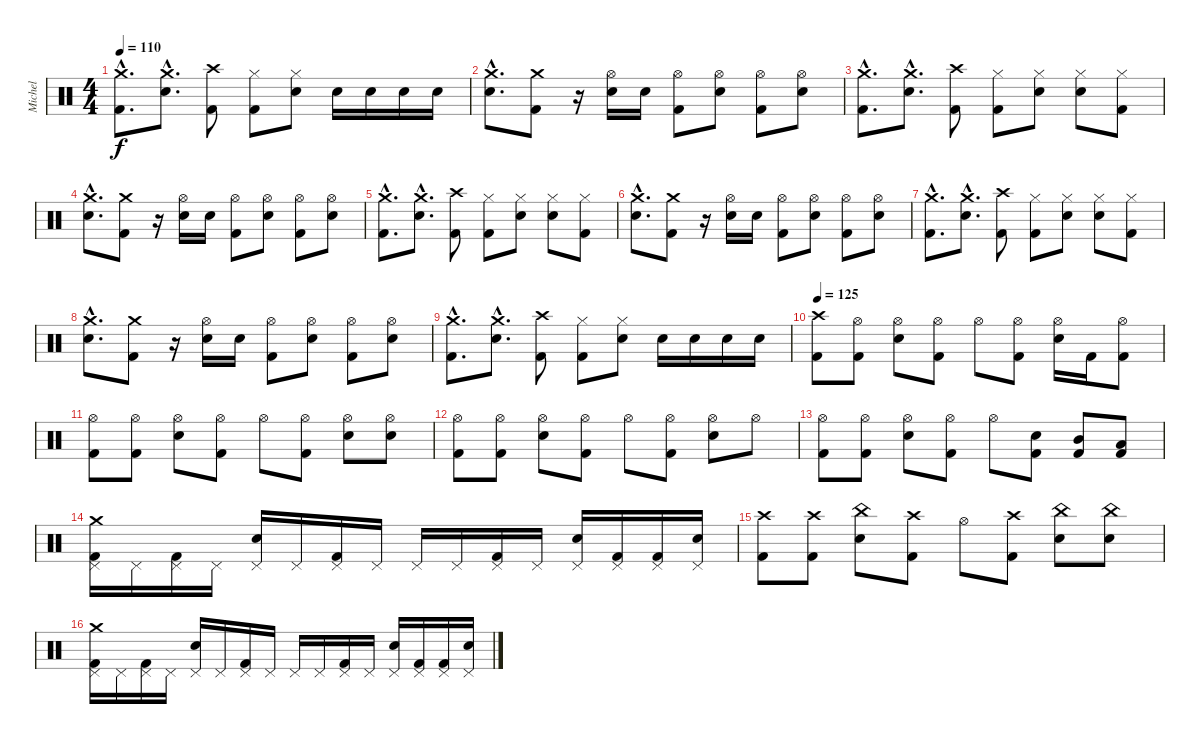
\track ("Michel" "Michel") {instrument percussion}
\staff {score}
\articulation defaults
\ts (4 4)
\tempo 110
\clef neutral
\ks c
("Crash medium (hit)"{hac} "Kick (hit) 2"{hac}).8{d dy f} ("Crash medium (hit)"{hac} "Snare (hit) 2"{hac}).8{d} ("Crash high (hit)" "Kick (hit) 2").8 ("Kick (hit) 2" "Hi-Hat (closed)").8 ("Snare (hit) 2" "Hi-Hat (closed)").8 "Snare (hit) 2".16 "Snare (hit) 2".16 "Snare (hit) 2".16 "Snare (hit) 2".16 |
("Crash medium (hit)"{hac} "Snare (hit) 2"{hac}).8{d} ("Crash medium (hit)" "Kick (hit) 2").8 r.16 ("Snare (hit) 2" "Hi-Hat (open)").16 "Snare (hit) 2".16 ("Kick (hit) 2" "Hi-Hat (open)").8 ("Snare (hit) 2" "Hi-Hat (open)").8 ("Kick (hit) 2" "Hi-Hat (open)").8 ("Snare (hit) 2" "Hi-Hat (open)").8 |
("Crash medium (hit)"{hac} "Kick (hit) 2"{hac}).8{d} ("Crash medium (hit)"{hac} "Snare (hit) 2"{hac}).8{d} ("Crash high (hit)" "Kick (hit) 2").8 ("Kick (hit) 2" "Hi-Hat (closed)").8 ("Snare (hit) 2" "Hi-Hat (closed)").8 ("Snare (hit) 2" "Hi-Hat (closed)").8 ("Kick (hit) 2" "Hi-Hat (closed)").8 |
("Crash medium (hit)"{hac} "Snare (hit) 2"{hac}).8{d} ("Crash medium (hit)" "Kick (hit) 2").8 r.16 ("Snare (hit) 2" "Hi-Hat (open)").16 "Snare (hit) 2".16 ("Kick (hit) 2" "Hi-Hat (open)").8 ("Snare (hit) 2" "Hi-Hat (open)").8 ("Kick (hit) 2" "Hi-Hat (open)").8 ("Snare (hit) 2" "Hi-Hat (open)").8 |
("Crash medium (hit)"{hac} "Kick (hit) 2"{hac}).8{d} ("Crash medium (hit)"{hac} "Snare (hit) 2"{hac}).8{d} ("Crash high (hit)" "Kick (hit) 2").8 ("Kick (hit) 2" "Hi-Hat (closed)").8 ("Snare (hit) 2" "Hi-Hat (closed)").8 ("Snare (hit) 2" "Hi-Hat (closed)").8 ("Kick (hit) 2" "Hi-Hat (closed)").8 |
("Crash medium (hit)"{hac} "Snare (hit) 2"{hac}).8{d} ("Crash medium (hit)" "Kick (hit) 2").8 r.16 ("Snare (hit) 2" "Hi-Hat (open)").16 "Snare (hit) 2".16 ("Kick (hit) 2" "Hi-Hat (open)").8 ("Snare (hit) 2" "Hi-Hat (open)").8 ("Kick (hit) 2" "Hi-Hat (open)").8 ("Snare (hit) 2" "Hi-Hat (open)").8 |
("Crash medium (hit)"{hac} "Kick (hit) 2"{hac}).8{d} ("Crash medium (hit)"{hac} "Snare (hit) 2"{hac}).8{d} ("Crash high (hit)" "Kick (hit) 2").8 ("Kick (hit) 2" "Hi-Hat (closed)").8 ("Snare (hit) 2" "Hi-Hat (closed)").8 ("Snare (hit) 2" "Hi-Hat (closed)").8 ("Kick (hit) 2" "Hi-Hat (closed)").8 |
("Crash medium (hit)"{hac} "Snare (hit) 2"{hac}).8{d} ("Crash medium (hit)" "Kick (hit) 2").8 r.16 ("Snare (hit) 2" "Hi-Hat (open)").16 "Snare (hit) 2".16 ("Kick (hit) 2" "Hi-Hat (open)").8 ("Snare (hit) 2" "Hi-Hat (open)").8 ("Kick (hit) 2" "Hi-Hat (open)").8 ("Snare (hit) 2" "Hi-Hat (open)").8 |
("Crash medium (hit)"{hac} "Kick (hit) 2"{hac}).8{d} ("Crash medium (hit)"{hac} "Snare (hit) 2"{hac}).8{d} ("Crash high (hit)" "Kick (hit) 2").8 ("Kick (hit) 2" "Hi-Hat (closed)").8 ("Snare (hit) 2" "Hi-Hat (closed)").8 "Snare (hit) 2".16 "Snare (hit) 2".16 "Snare (hit) 2".16 "Snare (hit) 2".16 |
\tempo 125
("Crash high (hit)" "Kick (hit) 2").8 ("Kick (hit) 2" "Hi-Hat (open)").8 ("Snare (hit) 2" "Hi-Hat (open)").8 ("Kick (hit) 2" "Hi-Hat (open)").8 "Hi-Hat (open)".8 ("Kick (hit) 2" "Hi-Hat (open)").8 ("Snare (hit) 2" "Hi-Hat (open)").16 "Kick (hit) 2".16 ("Kick (hit) 2" "Hi-Hat (open)").8 |
("Kick (hit) 2" "Hi-Hat (open)").8 ("Kick (hit) 2" "Hi-Hat (open)").8 ("Snare (hit) 2" "Hi-Hat (open)").8 ("Kick (hit) 2" "Hi-Hat (open)").8 "Hi-Hat (open)".8 ("Kick (hit) 2" "Hi-Hat (open)").8 ("Snare (hit) 2" "Hi-Hat (open)").8 ("Snare (hit) 2" "Hi-Hat (open)").8 |
("Kick (hit) 2" "Hi-Hat (open)").8 ("Kick (hit) 2" "Hi-Hat (open)").8 ("Snare (hit) 2" "Hi-Hat (open)").8 ("Kick (hit) 2" "Hi-Hat (open)").8 "Hi-Hat (open)".8 ("Kick (hit) 2" "Hi-Hat (open)").8 ("Snare (hit) 2" "Hi-Hat (open)").8 "Hi-Hat (open)".8 |
("Kick (hit) 2" "Hi-Hat (open)").8 ("Kick (hit) 2" "Hi-Hat (open)").8 ("Snare (hit) 2" "Hi-Hat (open)").8 ("Kick (hit) 2" "Hi-Hat (open)").8 "Hi-Hat (open)".8 ("Snare (hit) 2" "Kick (hit) 2").8 ("Mid Tom (hit)" "Kick (hit) 2").8 ("Low Tom (hit)" "Kick (hit) 2").8 |
("Crash medium (hit)" "Kick (hit) 2" "Pedal Hi-Hat (hit)").16 "Pedal Hi-Hat (hit)".16 ("Kick (hit) 2" "Pedal Hi-Hat (hit)").16 "Pedal Hi-Hat (hit)".16 ("Snare (hit) 2" "Pedal Hi-Hat (hit)").16 "Pedal Hi-Hat (hit)".16 ("Kick (hit) 2" "Pedal Hi-Hat (hit)").16 "Pedal Hi-Hat (hit)".16 "Pedal Hi-Hat (hit)".16 "Pedal Hi-Hat (hit)".16 ("Kick (hit) 2" "Pedal Hi-Hat (hit)").16 "Pedal Hi-Hat (hit)".16 ("Snare (hit) 2" "Pedal Hi-Hat (hit)").16 ("Kick (hit) 2" "Pedal Hi-Hat (hit)").16 ("Kick (hit) 2" "Pedal Hi-Hat (hit)").16 ("Snare (hit) 2" "Pedal Hi-Hat (hit)").16 |
("Crash high (hit)" "Kick (hit) 2").8 ("Crash high (hit)" "Kick (hit) 2").8 ("China (hit)" "Snare (hit) 2").8 ("Crash high (hit)" "Kick (hit) 2").8 "Hi-Hat (open)".8 ("Crash high (hit)" "Kick (hit) 2").8 ("China (hit)" "Snare (hit) 2").8 ("China (hit)" "Snare (hit) 2").8 |
("Crash medium (hit)" "Kick (hit) 2" "Pedal Hi-Hat (hit)").16 "Pedal Hi-Hat (hit)".16 ("Kick (hit) 2" "Pedal Hi-Hat (hit)").16 "Pedal Hi-Hat (hit)".16 ("Snare (hit) 2" "Pedal Hi-Hat (hit)").16 "Pedal Hi-Hat (hit)".16 ("Kick (hit) 2" "Pedal Hi-Hat (hit)").16 "Pedal Hi-Hat (hit)".16 "Pedal Hi-Hat (hit)".16 "Pedal Hi-Hat (hit)".16 ("Kick (hit) 2" "Pedal Hi-Hat (hit)").16 "Pedal Hi-Hat (hit)".16 ("Snare (hit) 2" "Pedal Hi-Hat (hit)").16 ("Kick (hit) 2" "Pedal Hi-Hat (hit)").16 ("Kick (hit) 2" "Pedal Hi-Hat (hit)").16 ("Snare (hit) 2" "Pedal Hi-Hat (hit)").16
